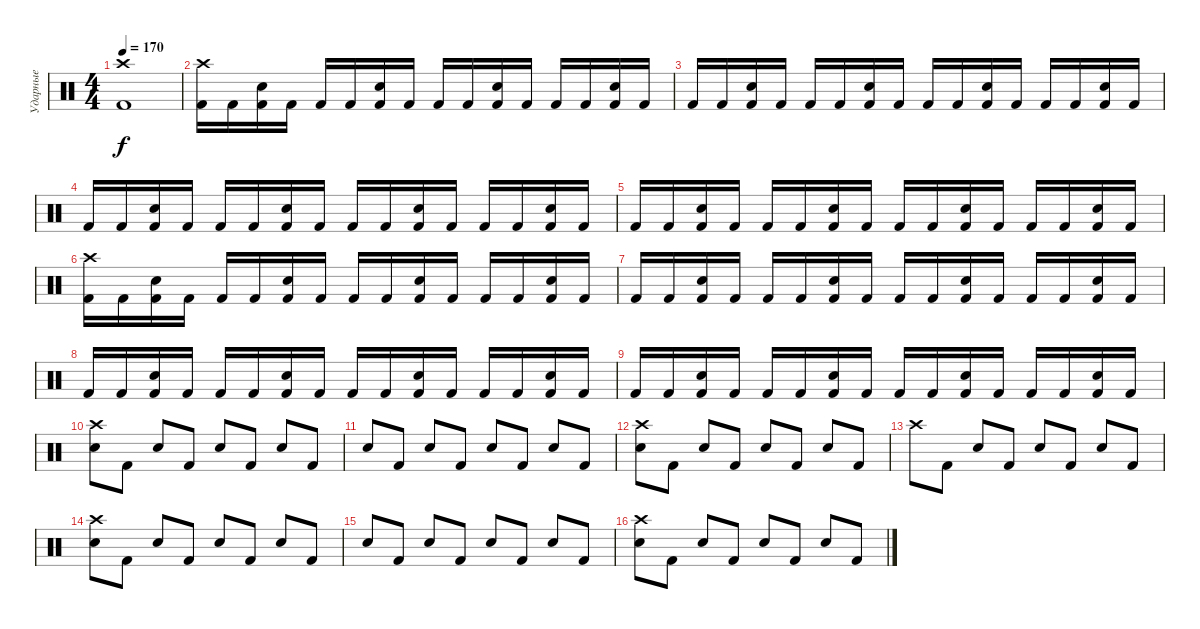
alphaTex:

\track ("Ударные" "Ударные") {instrument percussion}
\staff {score}
\articulation defaults
\ts (4 4)
\tempo 170
\clef neutral
\ks c
("Kick (hit) 2" "Crash high (hit)").1{dy f} |
("Kick (hit) 2" "Crash high (hit)").16 "Kick (hit) 2".16 ("Kick (hit) 2" "Electric Snare (hit)").16 "Kick (hit) 2".16 "Kick (hit) 2".16 "Kick (hit) 2".16 ("Kick (hit) 2" "Electric Snare (hit)").16 "Kick (hit) 2".16 "Kick (hit) 2".16 "Kick (hit) 2".16 ("Kick (hit) 2" "Electric Snare (hit)").16 "Kick (hit) 2".16 "Kick (hit) 2".16 "Kick (hit) 2".16 ("Kick (hit) 2" "Electric Snare (hit)").16 "Kick (hit) 2".16 |
"Kick (hit) 2".16 "Kick (hit) 2".16 ("Kick (hit) 2" "Electric Snare (hit)").16 "Kick (hit) 2".16 "Kick (hit) 2".16 "Kick (hit) 2".16 ("Kick (hit) 2" "Electric Snare (hit)").16 "Kick (hit) 2".16 "Kick (hit) 2".16 "Kick (hit) 2".16 ("Kick (hit) 2" "Electric Snare (hit)").16 "Kick (hit) 2".16 "Kick (hit) 2".16 "Kick (hit) 2".16 ("Kick (hit) 2" "Electric Snare (hit)").16 "Kick (hit) 2".16 |
"Kick (hit) 2".16 "Kick (hit) 2".16 ("Kick (hit) 2" "Electric Snare (hit)").16 "Kick (hit) 2".16 "Kick (hit) 2".16 "Kick (hit) 2".16 ("Kick (hit) 2" "Electric Snare (hit)").16 "Kick (hit) 2".16 "Kick (hit) 2".16 "Kick (hit) 2".16 ("Kick (hit) 2" "Electric Snare (hit)").16 "Kick (hit) 2".16 "Kick (hit) 2".16 "Kick (hit) 2".16 ("Kick (hit) 2" "Electric Snare (hit)").16 "Kick (hit) 2".16 |
"Kick (hit) 2".16 "Kick (hit) 2".16 ("Kick (hit) 2" "Electric Snare (hit)").16 "Kick (hit) 2".16 "Kick (hit) 2".16 "Kick (hit) 2".16 ("Kick (hit) 2" "Electric Snare (hit)").16 "Kick (hit) 2".16 "Kick (hit) 2".16 "Kick (hit) 2".16 ("Kick (hit) 2" "Electric Snare (hit)").16 "Kick (hit) 2".16 "Kick (hit) 2".16 "Kick (hit) 2".16 ("Kick (hit) 2" "Electric Snare (hit)").16 "Kick (hit) 2".16 |
("Kick (hit) 2" "Crash high (hit)").16 "Kick (hit) 2".16 ("Kick (hit) 2" "Electric Snare (hit)").16 "Kick (hit) 2".16 "Kick (hit) 2".16 "Kick (hit) 2".16 ("Kick (hit) 2" "Electric Snare (hit)").16 "Kick (hit) 2".16 "Kick (hit) 2".16 "Kick (hit) 2".16 ("Kick (hit) 2" "Electric Snare (hit)").16 "Kick (hit) 2".16 "Kick (hit) 2".16 "Kick (hit) 2".16 ("Kick (hit) 2" "Electric Snare (hit)").16 "Kick (hit) 2".16 |
"Kick (hit) 2".16 "Kick (hit) 2".16 ("Kick (hit) 2" "Electric Snare (hit)").16 "Kick (hit) 2".16 "Kick (hit) 2".16 "Kick (hit) 2".16 ("Kick (hit) 2" "Electric Snare (hit)").16 "Kick (hit) 2".16 "Kick (hit) 2".16 "Kick (hit) 2".16 ("Kick (hit) 2" "Electric Snare (hit)").16 "Kick (hit) 2".16 "Kick (hit) 2".16 "Kick (hit) 2".16 ("Kick (hit) 2" "Electric Snare (hit)").16 "Kick (hit) 2".16 |
"Kick (hit) 2".16 "Kick (hit) 2".16 ("Kick (hit) 2" "Electric Snare (hit)").16 "Kick (hit) 2".16 "Kick (hit) 2".16 "Kick (hit) 2".16 ("Kick (hit) 2" "Electric Snare (hit)").16 "Kick (hit) 2".16 "Kick (hit) 2".16 "Kick (hit) 2".16 ("Kick (hit) 2" "Electric Snare (hit)").16 "Kick (hit) 2".16 "Kick (hit) 2".16 "Kick (hit) 2".16 ("Kick (hit) 2" "Electric Snare (hit)").16 "Kick (hit) 2".16 |
"Kick (hit) 2".16 "Kick (hit) 2".16 ("Kick (hit) 2" "Electric Snare (hit)").16 "Kick (hit) 2".16 "Kick (hit) 2".16 "Kick (hit) 2".16 ("Kick (hit) 2" "Electric Snare (hit)").16 "Kick (hit) 2".16 "Kick (hit) 2".16 "Kick (hit) 2".16 ("Kick (hit) 2" "Electric Snare (hit)").16 "Kick (hit) 2".16 "Kick (hit) 2".16 "Kick (hit) 2".16 ("Kick (hit) 2" "Electric Snare (hit)").16 "Kick (hit) 2".16 |
("Crash high (hit)" "Electric Snare (hit)").8 "Kick (hit) 2".8 "Electric Snare (hit)".8 "Kick (hit) 2".8 "Electric Snare (hit)".8 "Kick (hit) 2".8 "Electric Snare (hit)".8 "Kick (hit) 2".8 |
"Electric Snare (hit)".8 "Kick (hit) 2".8 "Electric Snare (hit)".8 "Kick (hit) 2".8 "Electric Snare (hit)".8 "Kick (hit) 2".8 "Electric Snare (hit)".8 "Kick (hit) 2".8 |
("Crash high (hit)" "Electric Snare (hit)").8 "Kick (hit) 2".8 "Electric Snare (hit)".8 "Kick (hit) 2".8 "Electric Snare (hit)".8 "Kick (hit) 2".8 "Electric Snare (hit)".8 "Kick (hit) 2".8 |
"Crash high (hit)".8 "Kick (hit) 2".8 "Electric Snare (hit)".8 "Kick (hit) 2".8 "Electric Snare (hit)".8 "Kick (hit) 2".8 "Electric Snare (hit)".8 "Kick (hit) 2".8 |
("Crash high (hit)" "Electric Snare (hit)").8 "Kick (hit) 2".8 "Electric Snare (hit)".8 "Kick (hit) 2".8 "Electric Snare (hit)".8 "Kick (hit) 2".8 "Electric Snare (hit)".8 "Kick (hit) 2".8 |
"Electric Snare (hit)".8 "Kick (hit) 2".8 "Electric Snare (hit)".8 "Kick (hit) 2".8 "Electric Snare (hit)".8 "Kick (hit) 2".8 "Electric Snare (hit)".8 "Kick (hit) 2".8 |
("Crash high (hit)" "Electric Snare (hit)").8 "Kick (hit) 2".8 "Electric Snare (hit)".8 "Kick (hit) 2".8 "Electric Snare (hit)".8 "Kick (hit) 2".8 "Electric Snare (hit)".8 "Kick (hit) 2".8
